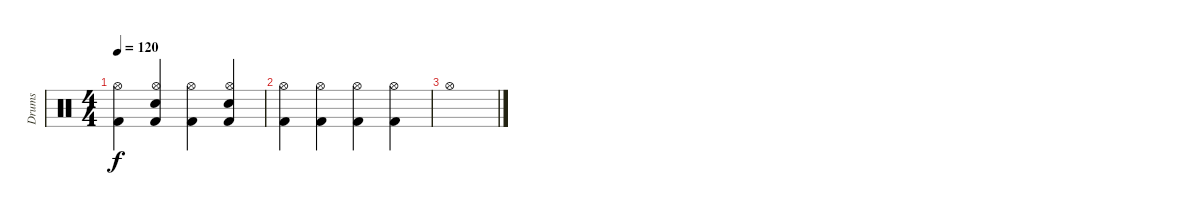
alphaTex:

\track ("Drums" "Drums") {instrument percussion}
\staff {score}
\articulation defaults
\ts (4 4)
\tempo 120
\clef neutral
\ks c
("Kick (hit) 2" "Hi-Hat (open)").4{dy f} ("Kick (hit) 2" "Hi-Hat (open)" "Electric Snare (hit)").4 ("Kick (hit) 2" "Hi-Hat (open)").4 ("Kick (hit) 2" "Hi-Hat (open)" "Electric Snare (hit)").4 |
("Kick (hit) 2" "Hi-Hat (open)").4 ("Kick (hit) 2" "Hi-Hat (open)").4 ("Kick (hit) 2" "Hi-Hat (open)").4 ("Kick (hit) 2" "Hi-Hat (open)").4 |
"Hi-Hat (open)".1
